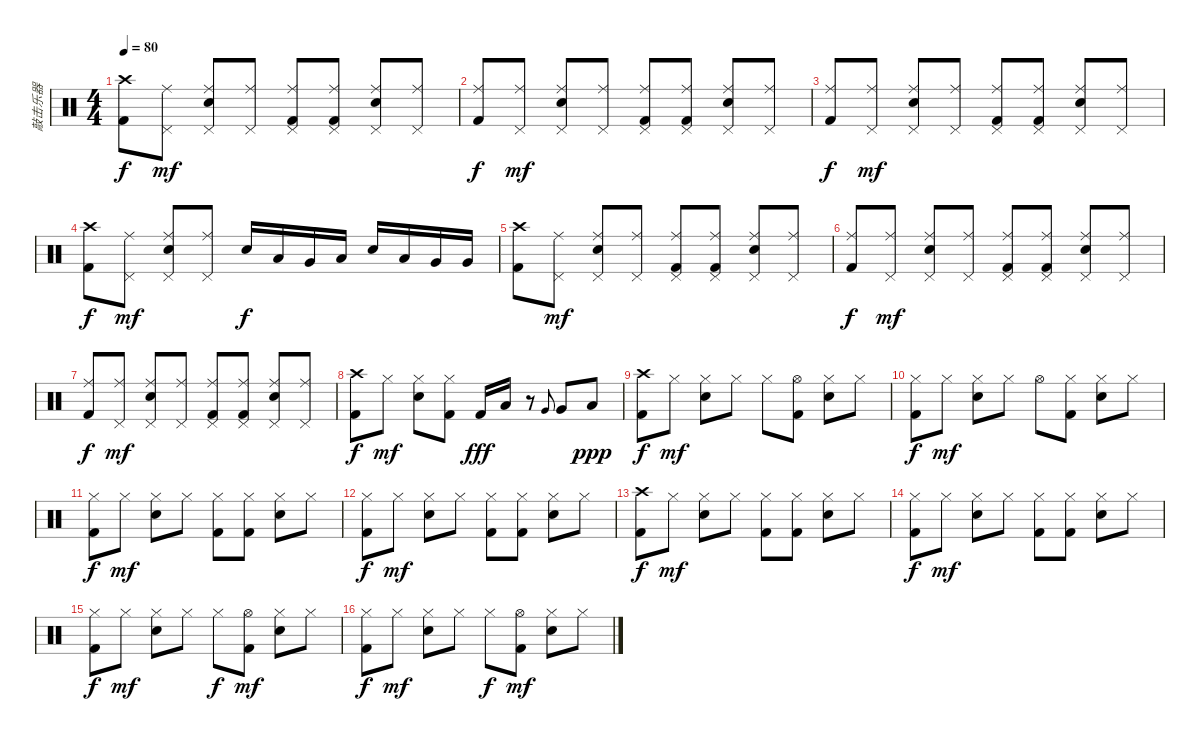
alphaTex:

\track ("敲击乐器" "敲击乐器") {instrument percussion}
\staff {score}
\articulation defaults
\ts (4 4)
\tempo 80
\clef neutral
\ks c
("Crash high (hit)" "Kick (hit) 2").8{dy f} ("Ride (middle)" "Pedal Hi-Hat (hit)").8{dy mf} ("Ride (middle)" "Electric Snare (hit)" "Pedal Hi-Hat (hit)").8 ("Ride (middle)" "Pedal Hi-Hat (hit)").8 ("Ride (middle)" "Kick (hit) 2" "Pedal Hi-Hat (hit)").8 ("Ride (middle)" "Kick (hit) 2" "Pedal Hi-Hat (hit)").8 ("Ride (middle)" "Electric Snare (hit)" "Pedal Hi-Hat (hit)").8 ("Ride (middle)" "Pedal Hi-Hat (hit)").8 |
("Ride (middle)" "Kick (hit) 2").8{dy f} ("Ride (middle)" "Pedal Hi-Hat (hit)").8{dy mf} ("Ride (middle)" "Electric Snare (hit)" "Pedal Hi-Hat (hit)").8 ("Ride (middle)" "Pedal Hi-Hat (hit)").8 ("Ride (middle)" "Kick (hit) 2" "Pedal Hi-Hat (hit)").8 ("Ride (middle)" "Kick (hit) 2" "Pedal Hi-Hat (hit)").8 ("Ride (middle)" "Electric Snare (hit)" "Pedal Hi-Hat (hit)").8 ("Ride (middle)" "Pedal Hi-Hat (hit)").8 |
("Ride (middle)" "Kick (hit) 2").8{dy f} ("Ride (middle)" "Pedal Hi-Hat (hit)").8{dy mf} ("Ride (middle)" "Electric Snare (hit)" "Pedal Hi-Hat (hit)").8 ("Ride (middle)" "Pedal Hi-Hat (hit)").8 ("Ride (middle)" "Kick (hit) 2" "Pedal Hi-Hat (hit)").8 ("Ride (middle)" "Kick (hit) 2" "Pedal Hi-Hat (hit)").8 ("Ride (middle)" "Electric Snare (hit)" "Pedal Hi-Hat (hit)").8 ("Ride (middle)" "Pedal Hi-Hat (hit)").8 |
("Crash high (hit)" "Kick (hit) 2").8{dy f} ("Ride (middle)" "Pedal Hi-Hat (hit)").8{dy mf} ("Ride (middle)" "Electric Snare (hit)" "Pedal Hi-Hat (hit)").8 ("Ride (middle)" "Pedal Hi-Hat (hit)").8 "Electric Snare (hit)".16{dy f} "Low Tom (hit)".16 "Very Low Tom (hit)".16 "Low Floor Tom (hit)".16 "Electric Snare (hit)".16 "Low Tom (hit)".16 "Very Low Tom (hit)".16 "Very Low Tom (hit)".16 |
("Crash high (hit)" "Kick (hit) 2").8 ("Ride (middle)" "Pedal Hi-Hat (hit)").8{dy mf} ("Ride (middle)" "Electric Snare (hit)" "Pedal Hi-Hat (hit)").8 ("Ride (middle)" "Pedal Hi-Hat (hit)").8 ("Ride (middle)" "Kick (hit) 2" "Pedal Hi-Hat (hit)").8 ("Ride (middle)" "Kick (hit) 2" "Pedal Hi-Hat (hit)").8 ("Ride (middle)" "Electric Snare (hit)" "Pedal Hi-Hat (hit)").8 ("Ride (middle)" "Pedal Hi-Hat (hit)").8 |
("Ride (middle)" "Kick (hit) 2").8{dy f} ("Ride (middle)" "Pedal Hi-Hat (hit)").8{dy mf} ("Ride (middle)" "Electric Snare (hit)" "Pedal Hi-Hat (hit)").8 ("Ride (middle)" "Pedal Hi-Hat (hit)").8 ("Ride (middle)" "Kick (hit) 2" "Pedal Hi-Hat (hit)").8 ("Ride (middle)" "Kick (hit) 2" "Pedal Hi-Hat (hit)").8 ("Ride (middle)" "Electric Snare (hit)" "Pedal Hi-Hat (hit)").8 ("Ride (middle)" "Pedal Hi-Hat (hit)").8 |
("Ride (middle)" "Kick (hit) 2").8{dy f} ("Ride (middle)" "Pedal Hi-Hat (hit)").8{dy mf} ("Ride (middle)" "Electric Snare (hit)" "Pedal Hi-Hat (hit)").8 ("Ride (middle)" "Pedal Hi-Hat (hit)").8 ("Ride (middle)" "Kick (hit) 2" "Pedal Hi-Hat (hit)").8 ("Ride (middle)" "Kick (hit) 2" "Pedal Hi-Hat (hit)").8 ("Ride (middle)" "Electric Snare (hit)" "Pedal Hi-Hat (hit)").8 ("Ride (middle)" "Pedal Hi-Hat (hit)").8 |
("Crash high (hit)" "Kick (hit) 2").8{dy f} "Hi-Hat (closed)".8{dy mf} ("Electric Snare (hit)" "Hi-Hat (closed)").8 ("Kick (hit) 2" "Hi-Hat (closed)").8 "Kick (hit) 2".16{dy fff} "Low Tom (hit)".16 r.8 "Very Low Tom (hit)".8{gr onbeat} "Very Low Tom (hit)".8 "Low Floor Tom (hit)".8{dy ppp} |
("Crash high (hit)" "Kick (hit) 2").8{dy f} "Hi-Hat (closed)".8{dy mf} ("Electric Snare (hit)" "Hi-Hat (closed)").8 "Hi-Hat (closed)".8 "Hi-Hat (closed)".8 ("Kick (hit) 2" "Hi-Hat (open)").8 ("Electric Snare (hit)" "Hi-Hat (closed)").8 "Hi-Hat (closed)".8 |
("Hi-Hat (closed)" "Kick (hit) 2").8{dy f} "Hi-Hat (closed)".8{dy mf} ("Electric Snare (hit)" "Hi-Hat (closed)").8 "Hi-Hat (closed)".8 "Hi-Hat (open)".8 ("Kick (hit) 2" "Hi-Hat (closed)").8 ("Electric Snare (hit)" "Hi-Hat (closed)").8 "Hi-Hat (closed)".8 |
("Hi-Hat (closed)" "Kick (hit) 2").8{dy f} "Hi-Hat (closed)".8{dy mf} ("Electric Snare (hit)" "Hi-Hat (closed)").8 "Hi-Hat (closed)".8 ("Hi-Hat (closed)" "Kick (hit) 2").8 ("Kick (hit) 2" "Hi-Hat (closed)").8 ("Electric Snare (hit)" "Hi-Hat (closed)").8 "Hi-Hat (closed)".8 |
("Hi-Hat (closed)" "Kick (hit) 2").8{dy f} "Hi-Hat (closed)".8{dy mf} ("Electric Snare (hit)" "Hi-Hat (closed)").8 "Hi-Hat (closed)".8 ("Hi-Hat (closed)" "Kick (hit) 2").8 ("Kick (hit) 2" "Hi-Hat (closed)").8 ("Electric Snare (hit)" "Hi-Hat (closed)").8 "Hi-Hat (closed)".8 |
("Crash high (hit)" "Kick (hit) 2").8{dy f} "Hi-Hat (closed)".8{dy mf} ("Electric Snare (hit)" "Hi-Hat (closed)").8 "Hi-Hat (closed)".8 ("Hi-Hat (closed)" "Kick (hit) 2").8 ("Kick (hit) 2" "Hi-Hat (closed)").8 ("Electric Snare (hit)" "Hi-Hat (closed)").8 "Hi-Hat (closed)".8 |
("Hi-Hat (closed)" "Kick (hit) 2").8{dy f} "Hi-Hat (closed)".8{dy mf} ("Electric Snare (hit)" "Hi-Hat (closed)").8 "Hi-Hat (closed)".8 ("Kick (hit) 2" "Hi-Hat (closed)").8 ("Kick (hit) 2" "Hi-Hat (closed)").8 ("Electric Snare (hit)" "Hi-Hat (closed)").8 "Hi-Hat (closed)".8 |
("Hi-Hat (closed)" "Kick (hit) 2").8{dy f} "Hi-Hat (closed)".8{dy mf} ("Electric Snare (hit)" "Hi-Hat (closed)").8 "Hi-Hat (closed)".8 "Hi-Hat (closed)".8{dy f} ("Kick (hit) 2" "Hi-Hat (open)").8{dy mf} ("Electric Snare (hit)" "Hi-Hat (closed)").8 "Hi-Hat (closed)".8 |
("Hi-Hat (closed)" "Kick (hit) 2").8{dy f} "Hi-Hat (closed)".8{dy mf} ("Electric Snare (hit)" "Hi-Hat (closed)").8 "Hi-Hat (closed)".8 "Hi-Hat (closed)".8{dy f} ("Kick (hit) 2" "Hi-Hat (open)").8{dy mf} ("Electric Snare (hit)" "Hi-Hat (closed)").8 "Hi-Hat (closed)".8
